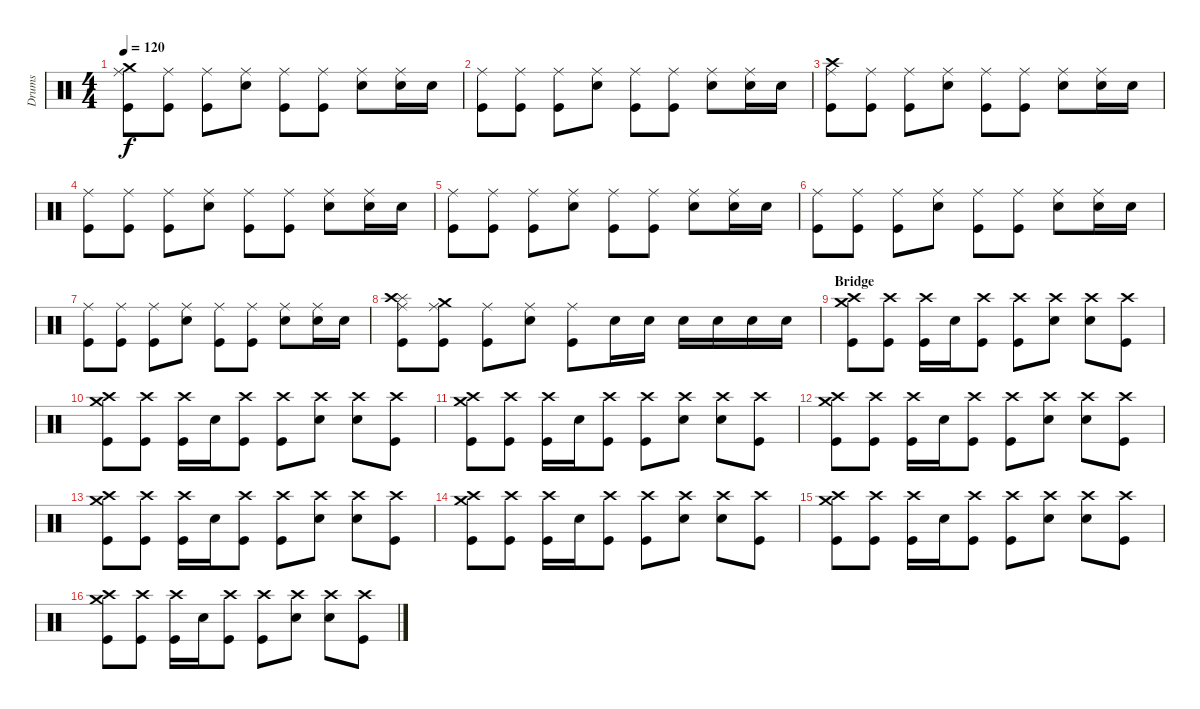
\track ("Drums" "Drums") {instrument percussion}
\staff {score}
\articulation defaults
\ts (4 4)
\tempo 120
\clef neutral
\ks c
("Ride (middle)" "Crash medium (hit)" "Kick (hit)").8{dy f} ("Ride (middle)" "Kick (hit)").8 ("Ride (middle)" "Kick (hit)").8 ("Ride (middle)" "Electric Snare (hit)").8 ("Ride (middle)" "Kick (hit)").8 ("Ride (middle)" "Kick (hit)").8 ("Ride (middle)" "Electric Snare (hit)").8 ("Ride (middle)" "Electric Snare (hit)").16 "Electric Snare (hit)".16 |
("Ride (middle)" "Kick (hit)").8 ("Ride (middle)" "Kick (hit)").8 ("Ride (middle)" "Kick (hit)").8 ("Ride (middle)" "Electric Snare (hit)").8 ("Ride (middle)" "Kick (hit)").8 ("Ride (middle)" "Kick (hit)").8 ("Ride (middle)" "Electric Snare (hit)").8 ("Ride (middle)" "Electric Snare (hit)").16 "Electric Snare (hit)".16 |
("Ride (middle)" "Crash high (hit)" "Kick (hit)").8 ("Ride (middle)" "Kick (hit)").8 ("Ride (middle)" "Kick (hit)").8 ("Ride (middle)" "Electric Snare (hit)").8 ("Ride (middle)" "Kick (hit)").8 ("Ride (middle)" "Kick (hit)").8 ("Ride (middle)" "Electric Snare (hit)").8 ("Ride (middle)" "Electric Snare (hit)").16 "Electric Snare (hit)".16 |
("Ride (middle)" "Kick (hit)").8 ("Ride (middle)" "Kick (hit)").8 ("Ride (middle)" "Kick (hit)").8 ("Ride (middle)" "Electric Snare (hit)").8 ("Ride (middle)" "Kick (hit)").8 ("Ride (middle)" "Kick (hit)").8 ("Ride (middle)" "Electric Snare (hit)").8 ("Ride (middle)" "Electric Snare (hit)").16 "Electric Snare (hit)".16 |
("Ride (middle)" "Kick (hit)").8 ("Ride (middle)" "Kick (hit)").8 ("Ride (middle)" "Kick (hit)").8 ("Ride (middle)" "Electric Snare (hit)").8 ("Ride (middle)" "Kick (hit)").8 ("Ride (middle)" "Kick (hit)").8 ("Ride (middle)" "Electric Snare (hit)").8 ("Ride (middle)" "Electric Snare (hit)").16 "Electric Snare (hit)".16 |
("Ride (middle)" "Kick (hit)").8 ("Ride (middle)" "Kick (hit)").8 ("Ride (middle)" "Kick (hit)").8 ("Ride (middle)" "Electric Snare (hit)").8 ("Ride (middle)" "Kick (hit)").8 ("Ride (middle)" "Kick (hit)").8 ("Ride (middle)" "Electric Snare (hit)").8 ("Ride (middle)" "Electric Snare (hit)").16 "Electric Snare (hit)".16 |
("Ride (middle)" "Kick (hit)").8 ("Ride (middle)" "Kick (hit)").8 ("Ride (middle)" "Kick (hit)").8 ("Ride (middle)" "Electric Snare (hit)").8 ("Ride (middle)" "Kick (hit)").8 ("Ride (middle)" "Kick (hit)").8 ("Ride (middle)" "Electric Snare (hit)").8 ("Ride (middle)" "Electric Snare (hit)").16 "Electric Snare (hit)".16 |
("Ride (middle)" "Splash (hit)" "Crash high (hit)" "Kick (hit)").8 ("Ride (middle)" "Crash medium (hit)" "Kick (hit)").8 ("Ride (middle)" "Kick (hit)").8 ("Ride (middle)" "Electric Snare (hit)").8 ("Ride (middle)" "Kick (hit)").8 "Electric Snare (hit)".16 "Electric Snare (hit)".16 "Electric Snare (hit)".16 "Electric Snare (hit)".16 "Electric Snare (hit)".16 "Electric Snare (hit)".16 |
\section ("" "Bridge")
("Crash high (hit)" "Crash medium (hit)" "Kick (hit)").8 ("Crash high (hit)" "Kick (hit)").8 ("Crash high (hit)" "Kick (hit)").16 "Electric Snare (hit)".16 ("Crash high (hit)" "Kick (hit)").8 ("Crash high (hit)" "Kick (hit)").8 ("Crash high (hit)" "Electric Snare (hit)").8 ("Crash high (hit)" "Electric Snare (hit)").8 ("Crash high (hit)" "Kick (hit)").8 |
("Crash high (hit)" "Crash medium (hit)" "Kick (hit)").8 ("Crash high (hit)" "Kick (hit)").8 ("Crash high (hit)" "Kick (hit)").16 "Electric Snare (hit)".16 ("Crash high (hit)" "Kick (hit)").8 ("Crash high (hit)" "Kick (hit)").8 ("Crash high (hit)" "Electric Snare (hit)").8 ("Crash high (hit)" "Electric Snare (hit)").8 ("Crash high (hit)" "Kick (hit)").8 |
("Crash high (hit)" "Crash medium (hit)" "Kick (hit)").8 ("Crash high (hit)" "Kick (hit)").8 ("Crash high (hit)" "Kick (hit)").16 "Electric Snare (hit)".16 ("Crash high (hit)" "Kick (hit)").8 ("Crash high (hit)" "Kick (hit)").8 ("Crash high (hit)" "Electric Snare (hit)").8 ("Crash high (hit)" "Electric Snare (hit)").8 ("Crash high (hit)" "Kick (hit)").8 |
("Crash high (hit)" "Crash medium (hit)" "Kick (hit)").8 ("Crash high (hit)" "Kick (hit)").8 ("Crash high (hit)" "Kick (hit)").16 "Electric Snare (hit)".16 ("Crash high (hit)" "Kick (hit)").8 ("Crash high (hit)" "Kick (hit)").8 ("Crash high (hit)" "Electric Snare (hit)").8 ("Crash high (hit)" "Electric Snare (hit)").8 ("Crash high (hit)" "Kick (hit)").8 |
("Crash high (hit)" "Crash medium (hit)" "Kick (hit)").8 ("Crash high (hit)" "Kick (hit)").8 ("Crash high (hit)" "Kick (hit)").16 "Electric Snare (hit)".16 ("Crash high (hit)" "Kick (hit)").8 ("Crash high (hit)" "Kick (hit)").8 ("Crash high (hit)" "Electric Snare (hit)").8 ("Crash high (hit)" "Electric Snare (hit)").8 ("Crash high (hit)" "Kick (hit)").8 |
("Crash high (hit)" "Crash medium (hit)" "Kick (hit)").8 ("Crash high (hit)" "Kick (hit)").8 ("Crash high (hit)" "Kick (hit)").16 "Electric Snare (hit)".16 ("Crash high (hit)" "Kick (hit)").8 ("Crash high (hit)" "Kick (hit)").8 ("Crash high (hit)" "Electric Snare (hit)").8 ("Crash high (hit)" "Electric Snare (hit)").8 ("Crash high (hit)" "Kick (hit)").8 |
("Crash high (hit)" "Crash medium (hit)" "Kick (hit)").8 ("Crash high (hit)" "Kick (hit)").8 ("Crash high (hit)" "Kick (hit)").16 "Electric Snare (hit)".16 ("Crash high (hit)" "Kick (hit)").8 ("Crash high (hit)" "Kick (hit)").8 ("Crash high (hit)" "Electric Snare (hit)").8 ("Crash high (hit)" "Electric Snare (hit)").8 ("Crash high (hit)" "Kick (hit)").8 |
("Crash high (hit)" "Crash medium (hit)" "Kick (hit)").8 ("Crash high (hit)" "Kick (hit)").8 ("Crash high (hit)" "Kick (hit)").16 "Electric Snare (hit)".16 ("Crash high (hit)" "Kick (hit)").8 ("Crash high (hit)" "Kick (hit)").8 ("Crash high (hit)" "Electric Snare (hit)").8 ("Crash high (hit)" "Electric Snare (hit)").8 ("Crash high (hit)" "Kick (hit)").8
